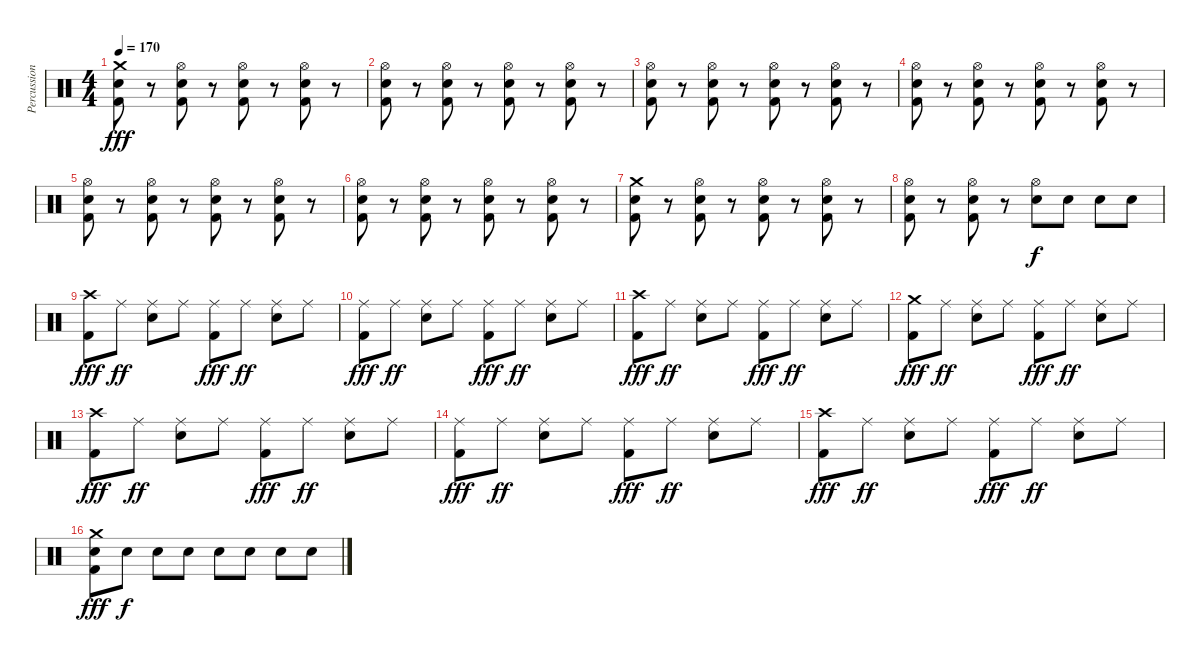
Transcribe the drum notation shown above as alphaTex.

\track ("Percussion" "Percussion") {instrument percussion}
\staff {score}
\articulation defaults
\ts (4 4)
\tempo 170
\clef neutral
\ks c
("Crash medium (hit)" "Electric Snare (hit)" "Kick (hit) 2").8{dy fff} r.8 ("Hi-Hat (open)" "Electric Snare (hit)" "Kick (hit) 2").8 r.8 ("Hi-Hat (open)" "Electric Snare (hit)" "Kick (hit) 2").8 r.8 ("Hi-Hat (open)" "Electric Snare (hit)" "Kick (hit) 2").8 r.8 |
("Hi-Hat (open)" "Electric Snare (hit)" "Kick (hit) 2").8 r.8 ("Hi-Hat (open)" "Electric Snare (hit)" "Kick (hit) 2").8 r.8 ("Hi-Hat (open)" "Electric Snare (hit)" "Kick (hit) 2").8 r.8 ("Hi-Hat (open)" "Electric Snare (hit)" "Kick (hit) 2").8 r.8 |
("Hi-Hat (open)" "Electric Snare (hit)" "Kick (hit) 2").8 r.8 ("Hi-Hat (open)" "Electric Snare (hit)" "Kick (hit) 2").8 r.8 ("Hi-Hat (open)" "Electric Snare (hit)" "Kick (hit) 2").8 r.8 ("Hi-Hat (open)" "Electric Snare (hit)" "Kick (hit) 2").8 r.8 |
("Hi-Hat (open)" "Electric Snare (hit)" "Kick (hit) 2").8 r.8 ("Hi-Hat (open)" "Electric Snare (hit)" "Kick (hit) 2").8 r.8 ("Hi-Hat (open)" "Electric Snare (hit)" "Kick (hit) 2").8 r.8 ("Hi-Hat (open)" "Electric Snare (hit)" "Kick (hit) 2").8 r.8 |
("Hi-Hat (open)" "Electric Snare (hit)" "Kick (hit) 2").8 r.8 ("Hi-Hat (open)" "Electric Snare (hit)" "Kick (hit) 2").8 r.8 ("Hi-Hat (open)" "Electric Snare (hit)" "Kick (hit) 2").8 r.8 ("Hi-Hat (open)" "Electric Snare (hit)" "Kick (hit) 2").8 r.8 |
("Hi-Hat (open)" "Electric Snare (hit)" "Kick (hit) 2").8 r.8 ("Hi-Hat (open)" "Electric Snare (hit)" "Kick (hit) 2").8 r.8 ("Hi-Hat (open)" "Electric Snare (hit)" "Kick (hit) 2").8 r.8 ("Hi-Hat (open)" "Electric Snare (hit)" "Kick (hit) 2").8 r.8 |
("Crash medium (hit)" "Electric Snare (hit)" "Kick (hit) 2").8 r.8 ("Hi-Hat (open)" "Electric Snare (hit)" "Kick (hit) 2").8 r.8 ("Hi-Hat (open)" "Electric Snare (hit)" "Kick (hit) 2").8 r.8 ("Hi-Hat (open)" "Electric Snare (hit)" "Kick (hit) 2").8 r.8 |
("Hi-Hat (open)" "Electric Snare (hit)" "Kick (hit) 2").8 r.8 ("Hi-Hat (open)" "Electric Snare (hit)" "Kick (hit) 2").8 r.8 ("Hi-Hat (open)" "Electric Snare (hit)").8{dy f} "Electric Snare (hit)".8 "Electric Snare (hit)".8 "Electric Snare (hit)".8 |
("Crash high (hit)" "Kick (hit) 2").8{dy fff} "Ride (middle)".8{dy ff} ("Ride (middle)" "Electric Snare (hit)").8 "Ride (middle)".8 ("Ride (middle)" "Kick (hit) 2").8{dy fff} "Ride (middle)".8{dy ff} ("Ride (middle)" "Electric Snare (hit)").8 "Ride (middle)".8 |
("Ride (middle)" "Kick (hit) 2").8{dy fff} "Ride (middle)".8{dy ff} ("Ride (middle)" "Electric Snare (hit)").8 "Ride (middle)".8 ("Ride (middle)" "Kick (hit) 2").8{dy fff} "Ride (middle)".8{dy ff} ("Ride (middle)" "Electric Snare (hit)").8 "Ride (middle)".8 |
("Crash high (hit)" "Kick (hit) 2").8{dy fff} "Ride (middle)".8{dy ff} ("Ride (middle)" "Electric Snare (hit)").8 "Ride (middle)".8 ("Ride (middle)" "Kick (hit) 2").8{dy fff} "Ride (middle)".8{dy ff} ("Ride (middle)" "Electric Snare (hit)").8 "Ride (middle)".8 |
("Crash medium (hit)" "Kick (hit) 2").8{dy fff} "Ride (middle)".8{dy ff} ("Ride (middle)" "Electric Snare (hit)").8 "Ride (middle)".8 ("Ride (middle)" "Kick (hit) 2").8{dy fff} "Ride (middle)".8{dy ff} ("Ride (middle)" "Electric Snare (hit)").8 "Ride (middle)".8 |
("Crash high (hit)" "Kick (hit) 2").8{dy fff} "Ride (middle)".8{dy ff} ("Ride (middle)" "Electric Snare (hit)").8 "Ride (middle)".8 ("Ride (middle)" "Kick (hit) 2").8{dy fff} "Ride (middle)".8{dy ff} ("Ride (middle)" "Electric Snare (hit)").8 "Ride (middle)".8 |
("Ride (middle)" "Kick (hit) 2").8{dy fff} "Ride (middle)".8{dy ff} ("Ride (middle)" "Electric Snare (hit)").8 "Ride (middle)".8 ("Ride (middle)" "Kick (hit) 2").8{dy fff} "Ride (middle)".8{dy ff} ("Ride (middle)" "Electric Snare (hit)").8 "Ride (middle)".8 |
("Crash high (hit)" "Kick (hit) 2").8{dy fff} "Ride (middle)".8{dy ff} ("Ride (middle)" "Electric Snare (hit)").8 "Ride (middle)".8 ("Ride (middle)" "Kick (hit) 2").8{dy fff} "Ride (middle)".8{dy ff} ("Ride (middle)" "Electric Snare (hit)").8 "Ride (middle)".8 |
("Crash medium (hit)" "Electric Snare (hit)" "Kick (hit) 2").8{dy fff} "Electric Snare (hit)".8{dy f} "Electric Snare (hit)".8 "Electric Snare (hit)".8 "Electric Snare (hit)".8 "Electric Snare (hit)".8 "Electric Snare (hit)".8 "Electric Snare (hit)".8
